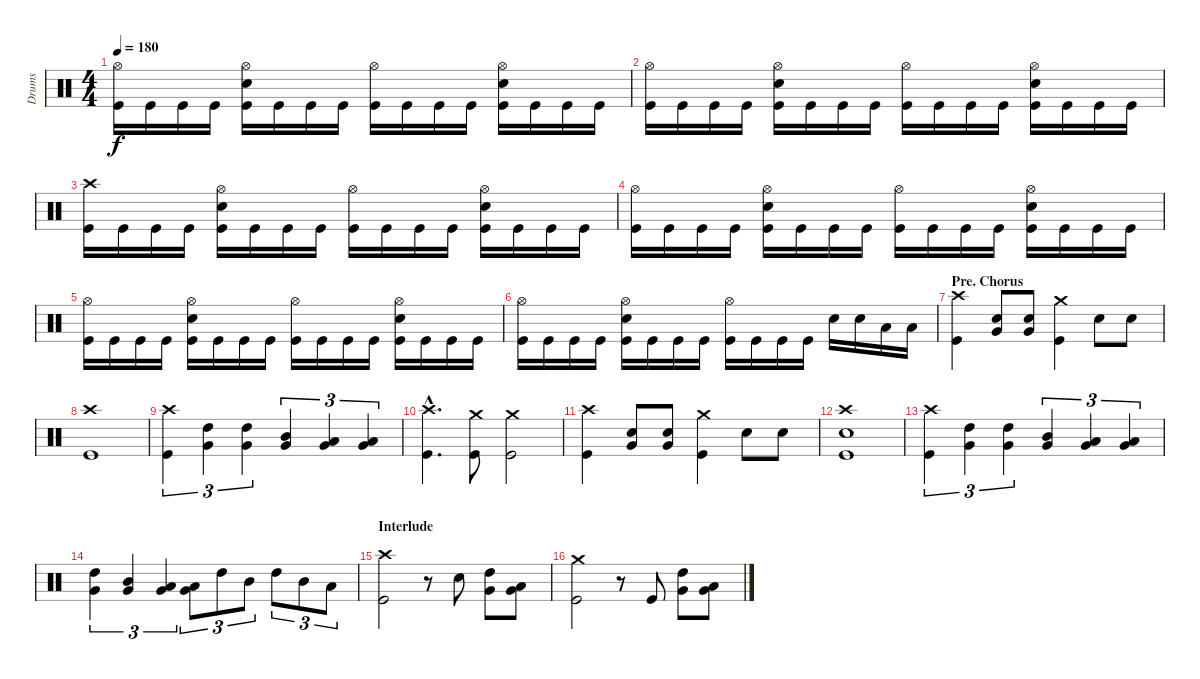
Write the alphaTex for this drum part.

\track ("Drums" "Drums") {instrument percussion}
\staff {score}
\articulation defaults
\ts (4 4)
\tempo 180
\clef neutral
\ks c
("Hi-Hat (open)" "Kick (hit)").16{dy f} "Kick (hit)".16 "Kick (hit)".16 "Kick (hit)".16 ("Hi-Hat (open)" "Electric Snare (hit)" "Kick (hit)").16 "Kick (hit)".16 "Kick (hit)".16 "Kick (hit)".16 ("Hi-Hat (open)" "Kick (hit)").16 "Kick (hit)".16 "Kick (hit)".16 "Kick (hit)".16 ("Hi-Hat (open)" "Electric Snare (hit)" "Kick (hit)").16 "Kick (hit)".16 "Kick (hit)".16 "Kick (hit)".16 |
("Hi-Hat (open)" "Kick (hit)").16 "Kick (hit)".16 "Kick (hit)".16 "Kick (hit)".16 ("Hi-Hat (open)" "Electric Snare (hit)" "Kick (hit)").16 "Kick (hit)".16 "Kick (hit)".16 "Kick (hit)".16 ("Hi-Hat (open)" "Kick (hit)").16 "Kick (hit)".16 "Kick (hit)".16 "Kick (hit)".16 ("Hi-Hat (open)" "Electric Snare (hit)" "Kick (hit)").16 "Kick (hit)".16 "Kick (hit)".16 "Kick (hit)".16 |
("Crash high (hit)" "Kick (hit)").16 "Kick (hit)".16 "Kick (hit)".16 "Kick (hit)".16 ("Hi-Hat (open)" "Electric Snare (hit)" "Kick (hit)").16 "Kick (hit)".16 "Kick (hit)".16 "Kick (hit)".16 ("Hi-Hat (open)" "Kick (hit)").16 "Kick (hit)".16 "Kick (hit)".16 "Kick (hit)".16 ("Hi-Hat (open)" "Electric Snare (hit)" "Kick (hit)").16 "Kick (hit)".16 "Kick (hit)".16 "Kick (hit)".16 |
("Hi-Hat (open)" "Kick (hit)").16 "Kick (hit)".16 "Kick (hit)".16 "Kick (hit)".16 ("Hi-Hat (open)" "Electric Snare (hit)" "Kick (hit)").16 "Kick (hit)".16 "Kick (hit)".16 "Kick (hit)".16 ("Hi-Hat (open)" "Kick (hit)").16 "Kick (hit)".16 "Kick (hit)".16 "Kick (hit)".16 ("Hi-Hat (open)" "Electric Snare (hit)" "Kick (hit)").16 "Kick (hit)".16 "Kick (hit)".16 "Kick (hit)".16 |
("Hi-Hat (open)" "Kick (hit)").16 "Kick (hit)".16 "Kick (hit)".16 "Kick (hit)".16 ("Hi-Hat (open)" "Electric Snare (hit)" "Kick (hit)").16 "Kick (hit)".16 "Kick (hit)".16 "Kick (hit)".16 ("Hi-Hat (open)" "Kick (hit)").16 "Kick (hit)".16 "Kick (hit)".16 "Kick (hit)".16 ("Hi-Hat (open)" "Electric Snare (hit)" "Kick (hit)").16 "Kick (hit)".16 "Kick (hit)".16 "Kick (hit)".16 |
("Hi-Hat (open)" "Kick (hit)").16 "Kick (hit)".16 "Kick (hit)".16 "Kick (hit)".16 ("Hi-Hat (open)" "Electric Snare (hit)" "Kick (hit)").16 "Kick (hit)".16 "Kick (hit)".16 "Kick (hit)".16 ("Hi-Hat (open)" "Kick (hit)").16 "Kick (hit)".16 "Kick (hit)".16 "Kick (hit)".16 "Electric Snare (hit)".16 "Electric Snare (hit)".16 "Low Tom (hit)".16 "Low Tom (hit)".16 |
\section ("" "Pre. Chorus")
("Crash high (hit)" "Kick (hit)").4 ("Very Low Tom (hit)" "Electric Snare (hit)").8 ("Very Low Tom (hit)" "Electric Snare (hit)").8 ("Crash medium (hit)" "Kick (hit)").4 "Electric Snare (hit)".8 "Electric Snare (hit)".8 |
("Crash high (hit)" "Kick (hit)").1 |
("Crash high (hit)" "Kick (hit)").4{tu (3 2)} ("Very Low Tom (hit)" "High Tom (hit)").4{tu (3 2)} ("Very Low Tom (hit)" "High Tom (hit)").4{tu (3 2)} ("Very Low Tom (hit)" "Mid Tom (hit)").4{tu (3 2)} ("Very Low Tom (hit)" "Low Tom (hit)").4{tu (3 2)} ("Low Floor Tom (hit)" "Very Low Tom (hit)").4{tu (3 2)} |
("Crash high (hit)"{hac} "Kick (hit)"{hac}).4{d} ("Crash medium (hit)" "Kick (hit)").8 ("Crash medium (hit)" "Kick (hit)").2 |
("Crash high (hit)" "Kick (hit)").4 ("Very Low Tom (hit)" "Electric Snare (hit)").8 ("Very Low Tom (hit)" "Electric Snare (hit)").8 ("Crash medium (hit)" "Kick (hit)").4 "Electric Snare (hit)".8 "Electric Snare (hit)".8 |
("Crash high (hit)" "Electric Snare (hit)" "Kick (hit)").1 |
("Crash high (hit)" "Kick (hit)").4{tu (3 2)} ("Very Low Tom (hit)" "High Tom (hit)").4{tu (3 2)} ("Very Low Tom (hit)" "High Tom (hit)").4{tu (3 2)} ("Very Low Tom (hit)" "Mid Tom (hit)").4{tu (3 2)} ("Very Low Tom (hit)" "Low Tom (hit)").4{tu (3 2)} ("Low Floor Tom (hit)" "Very Low Tom (hit)").4{tu (3 2)} |
("Very Low Tom (hit)" "High Tom (hit)").4{tu (3 2)} ("Very Low Tom (hit)" "Mid Tom (hit)").4{tu (3 2)} ("Very Low Tom (hit)" "Low Tom (hit)").4{tu (3 2)} ("Very Low Tom (hit)" "Low Tom (hit)").8{tu (3 2)} "High Tom (hit)".8{tu (3 2)} "Mid Tom (hit)".8{tu (3 2)} "High Tom (hit)".8{tu (3 2)} "Mid Tom (hit)".8{tu (3 2)} "Low Tom (hit)".8{tu (3 2)} |
\section ("" "Interlude")
("Crash high (hit)" "Kick (hit)").2 r.8 "Electric Snare (hit)".8 ("Very Low Tom (hit)" "High Tom (hit)").8 ("Very Low Tom (hit)" "Low Tom (hit)").8 |
("Crash medium (hit)" "Kick (hit)").2 r.8 "Kick (hit)".8 ("Very Low Tom (hit)" "High Tom (hit)").8 ("Very Low Tom (hit)" "Low Tom (hit)").8
